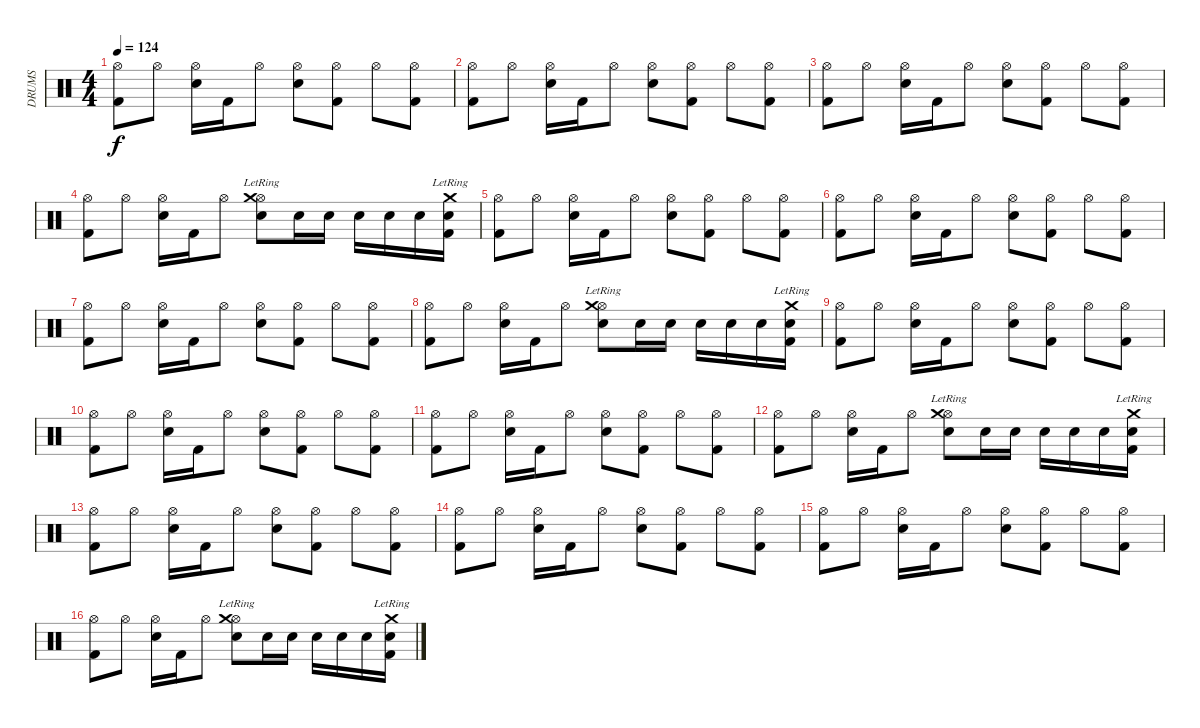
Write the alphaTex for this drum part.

\track ("DRUMS" "DRUMS") {instrument percussion}
\staff {score}
\articulation defaults
\ts (4 4)
\tempo 124
\clef neutral
\ks c
("Kick (hit) 2" "Hi-Hat (open)").8{dy f} "Hi-Hat (open)".8 ("Snare (hit) 2" "Hi-Hat (open)").16 "Kick (hit) 2".16 "Hi-Hat (open)".8 ("Snare (hit) 2" "Hi-Hat (open)").8 ("Kick (hit) 2" "Hi-Hat (open)").8 "Hi-Hat (open)".8 ("Kick (hit) 2" "Hi-Hat (open)").8 |
("Kick (hit) 2" "Hi-Hat (open)").8 "Hi-Hat (open)".8 ("Snare (hit) 2" "Hi-Hat (open)").16 "Kick (hit) 2".16 "Hi-Hat (open)".8 ("Snare (hit) 2" "Hi-Hat (open)").8 ("Kick (hit) 2" "Hi-Hat (open)").8 "Hi-Hat (open)".8 ("Kick (hit) 2" "Hi-Hat (open)").8 |
("Kick (hit) 2" "Hi-Hat (open)").8 "Hi-Hat (open)".8 ("Snare (hit) 2" "Hi-Hat (open)").16 "Kick (hit) 2".16 "Hi-Hat (open)".8 ("Snare (hit) 2" "Hi-Hat (open)").8 ("Kick (hit) 2" "Hi-Hat (open)").8 "Hi-Hat (open)".8 ("Kick (hit) 2" "Hi-Hat (open)").8 |
("Kick (hit) 2" "Hi-Hat (open)").8 "Hi-Hat (open)".8 ("Snare (hit) 2" "Hi-Hat (open)").16 "Kick (hit) 2".16 "Hi-Hat (open)".8 ("Snare (hit) 2" "Hi-Hat (open)" "Crash medium (hit)"{lr}).8 "Snare (hit) 2".16 "Snare (hit) 2".16 "Snare (hit) 2".16 "Snare (hit) 2".16 "Snare (hit) 2".16 ("Kick (hit) 2" "Snare (hit) 2" "Crash medium (hit)"{lr}).16 |
("Kick (hit) 2" "Hi-Hat (open)").8 "Hi-Hat (open)".8 ("Snare (hit) 2" "Hi-Hat (open)").16 "Kick (hit) 2".16 "Hi-Hat (open)".8 ("Snare (hit) 2" "Hi-Hat (open)").8 ("Kick (hit) 2" "Hi-Hat (open)").8 "Hi-Hat (open)".8 ("Kick (hit) 2" "Hi-Hat (open)").8 |
("Kick (hit) 2" "Hi-Hat (open)").8 "Hi-Hat (open)".8 ("Snare (hit) 2" "Hi-Hat (open)").16 "Kick (hit) 2".16 "Hi-Hat (open)".8 ("Snare (hit) 2" "Hi-Hat (open)").8 ("Kick (hit) 2" "Hi-Hat (open)").8 "Hi-Hat (open)".8 ("Kick (hit) 2" "Hi-Hat (open)").8 |
("Kick (hit) 2" "Hi-Hat (open)").8 "Hi-Hat (open)".8 ("Snare (hit) 2" "Hi-Hat (open)").16 "Kick (hit) 2".16 "Hi-Hat (open)".8 ("Snare (hit) 2" "Hi-Hat (open)").8 ("Kick (hit) 2" "Hi-Hat (open)").8 "Hi-Hat (open)".8 ("Kick (hit) 2" "Hi-Hat (open)").8 |
("Kick (hit) 2" "Hi-Hat (open)").8 "Hi-Hat (open)".8 ("Snare (hit) 2" "Hi-Hat (open)").16 "Kick (hit) 2".16 "Hi-Hat (open)".8 ("Snare (hit) 2" "Hi-Hat (open)" "Crash medium (hit)"{lr}).8 "Snare (hit) 2".16 "Snare (hit) 2".16 "Snare (hit) 2".16 "Snare (hit) 2".16 "Snare (hit) 2".16 ("Kick (hit) 2" "Snare (hit) 2" "Crash medium (hit)"{lr}).16 |
("Kick (hit) 2" "Hi-Hat (open)").8 "Hi-Hat (open)".8 ("Snare (hit) 2" "Hi-Hat (open)").16 "Kick (hit) 2".16 "Hi-Hat (open)".8 ("Snare (hit) 2" "Hi-Hat (open)").8 ("Kick (hit) 2" "Hi-Hat (open)").8 "Hi-Hat (open)".8 ("Kick (hit) 2" "Hi-Hat (open)").8 |
("Kick (hit) 2" "Hi-Hat (open)").8 "Hi-Hat (open)".8 ("Snare (hit) 2" "Hi-Hat (open)").16 "Kick (hit) 2".16 "Hi-Hat (open)".8 ("Snare (hit) 2" "Hi-Hat (open)").8 ("Kick (hit) 2" "Hi-Hat (open)").8 "Hi-Hat (open)".8 ("Kick (hit) 2" "Hi-Hat (open)").8 |
("Kick (hit) 2" "Hi-Hat (open)").8 "Hi-Hat (open)".8 ("Snare (hit) 2" "Hi-Hat (open)").16 "Kick (hit) 2".16 "Hi-Hat (open)".8 ("Snare (hit) 2" "Hi-Hat (open)").8 ("Kick (hit) 2" "Hi-Hat (open)").8 "Hi-Hat (open)".8 ("Kick (hit) 2" "Hi-Hat (open)").8 |
("Kick (hit) 2" "Hi-Hat (open)").8 "Hi-Hat (open)".8 ("Snare (hit) 2" "Hi-Hat (open)").16 "Kick (hit) 2".16 "Hi-Hat (open)".8 ("Snare (hit) 2" "Hi-Hat (open)" "Crash medium (hit)"{lr}).8 "Snare (hit) 2".16 "Snare (hit) 2".16 "Snare (hit) 2".16 "Snare (hit) 2".16 "Snare (hit) 2".16 ("Kick (hit) 2" "Snare (hit) 2" "Crash medium (hit)"{lr}).16 |
("Kick (hit) 2" "Hi-Hat (open)").8 "Hi-Hat (open)".8 ("Snare (hit) 2" "Hi-Hat (open)").16 "Kick (hit) 2".16 "Hi-Hat (open)".8 ("Snare (hit) 2" "Hi-Hat (open)").8 ("Kick (hit) 2" "Hi-Hat (open)").8 "Hi-Hat (open)".8 ("Kick (hit) 2" "Hi-Hat (open)").8 |
("Kick (hit) 2" "Hi-Hat (open)").8 "Hi-Hat (open)".8 ("Snare (hit) 2" "Hi-Hat (open)").16 "Kick (hit) 2".16 "Hi-Hat (open)".8 ("Snare (hit) 2" "Hi-Hat (open)").8 ("Kick (hit) 2" "Hi-Hat (open)").8 "Hi-Hat (open)".8 ("Kick (hit) 2" "Hi-Hat (open)").8 |
("Kick (hit) 2" "Hi-Hat (open)").8 "Hi-Hat (open)".8 ("Snare (hit) 2" "Hi-Hat (open)").16 "Kick (hit) 2".16 "Hi-Hat (open)".8 ("Snare (hit) 2" "Hi-Hat (open)").8 ("Kick (hit) 2" "Hi-Hat (open)").8 "Hi-Hat (open)".8 ("Kick (hit) 2" "Hi-Hat (open)").8 |
("Kick (hit) 2" "Hi-Hat (open)").8 "Hi-Hat (open)".8 ("Snare (hit) 2" "Hi-Hat (open)").16 "Kick (hit) 2".16 "Hi-Hat (open)".8 ("Snare (hit) 2" "Hi-Hat (open)" "Crash medium (hit)"{lr}).8 "Snare (hit) 2".16 "Snare (hit) 2".16 "Snare (hit) 2".16 "Snare (hit) 2".16 "Snare (hit) 2".16 ("Kick (hit) 2" "Snare (hit) 2" "Crash medium (hit)"{lr}).16
